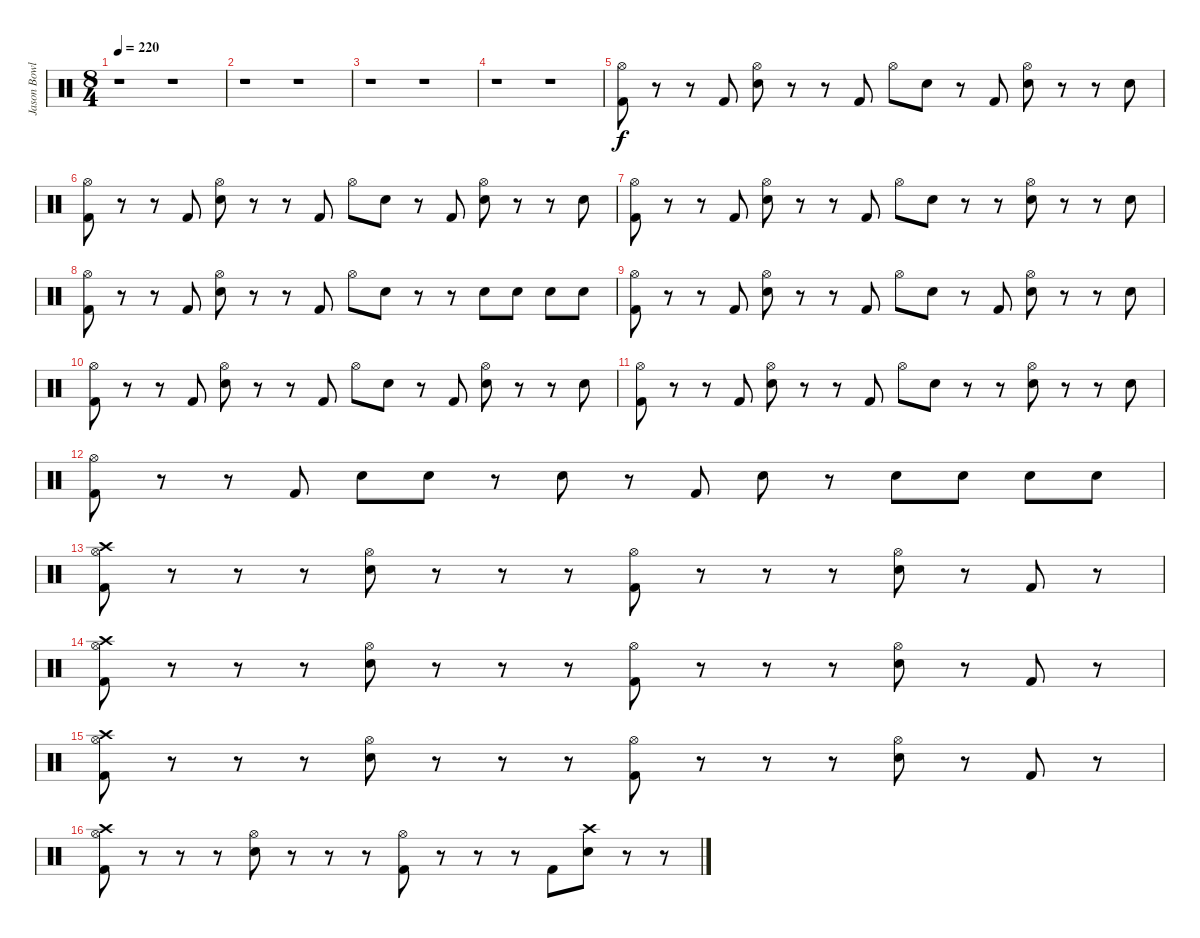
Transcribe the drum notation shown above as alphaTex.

\track ("Jason Bowld" "Jason Bowl") {instrument percussion}
\staff {score}
\articulation defaults
\ts (8 4)
\tempo 220
\clef neutral
\ks c
r.1{dy f} r.1 |
r.1 r.1 |
r.1 r.1 |
r.1 r.1 |
("Hi-Hat (open)" "Kick (hit) 2").8 r.8 r.8 "Kick (hit) 2".8 ("Hi-Hat (open)" "Snare (hit) 2").8 r.8 r.8 "Kick (hit) 2".8 "Hi-Hat (open)".8 "Snare (hit) 2".8 r.8 "Kick (hit) 2".8 ("Hi-Hat (open)" "Snare (hit) 2").8 r.8 r.8 "Snare (hit) 2".8 |
("Hi-Hat (open)" "Kick (hit) 2").8 r.8 r.8 "Kick (hit) 2".8 ("Hi-Hat (open)" "Snare (hit) 2").8 r.8 r.8 "Kick (hit) 2".8 "Hi-Hat (open)".8 "Snare (hit) 2".8 r.8 "Kick (hit) 2".8 ("Hi-Hat (open)" "Snare (hit) 2").8 r.8 r.8 "Snare (hit) 2".8 |
("Hi-Hat (open)" "Kick (hit) 2").8 r.8 r.8 "Kick (hit) 2".8 ("Hi-Hat (open)" "Snare (hit) 2").8 r.8 r.8 "Kick (hit) 2".8 "Hi-Hat (open)".8 "Snare (hit) 2".8 r.8 r.8 ("Hi-Hat (open)" "Snare (hit) 2").8 r.8 r.8 "Snare (hit) 2".8 |
("Hi-Hat (open)" "Kick (hit) 2").8 r.8 r.8 "Kick (hit) 2".8 ("Hi-Hat (open)" "Snare (hit) 2").8 r.8 r.8 "Kick (hit) 2".8 "Hi-Hat (open)".8 "Snare (hit) 2".8 r.8 r.8 "Snare (hit) 2".8 "Snare (hit) 2".8 "Snare (hit) 2".8 "Snare (hit) 2".8 |
("Hi-Hat (open)" "Kick (hit) 2").8 r.8 r.8 "Kick (hit) 2".8 ("Hi-Hat (open)" "Snare (hit) 2").8 r.8 r.8 "Kick (hit) 2".8 "Hi-Hat (open)".8 "Snare (hit) 2".8 r.8 "Kick (hit) 2".8 ("Hi-Hat (open)" "Snare (hit) 2").8 r.8 r.8 "Snare (hit) 2".8 |
("Hi-Hat (open)" "Kick (hit) 2").8 r.8 r.8 "Kick (hit) 2".8 ("Hi-Hat (open)" "Snare (hit) 2").8 r.8 r.8 "Kick (hit) 2".8 "Hi-Hat (open)".8 "Snare (hit) 2".8 r.8 "Kick (hit) 2".8 ("Hi-Hat (open)" "Snare (hit) 2").8 r.8 r.8 "Snare (hit) 2".8 |
("Hi-Hat (open)" "Kick (hit) 2").8 r.8 r.8 "Kick (hit) 2".8 ("Hi-Hat (open)" "Snare (hit) 2").8 r.8 r.8 "Kick (hit) 2".8 "Hi-Hat (open)".8 "Snare (hit) 2".8 r.8 r.8 ("Hi-Hat (open)" "Snare (hit) 2").8 r.8 r.8 "Snare (hit) 2".8 |
("Hi-Hat (open)" "Kick (hit) 2").8 r.8 r.8 "Kick (hit) 2".8 "Snare (hit) 2".8 "Snare (hit) 2".8 r.8 "Snare (hit) 2".8 r.8 "Kick (hit) 2".8 "Snare (hit) 2".8 r.8 "Snare (hit) 2".8 "Snare (hit) 2".8 "Snare (hit) 2".8 "Snare (hit) 2".8 |
("Hi-Hat (open)" "Kick (hit) 2" "Crash high (hit)").8 r.8 r.8 r.8 ("Hi-Hat (open)" "Snare (hit) 2").8 r.8 r.8 r.8 ("Hi-Hat (open)" "Kick (hit) 2").8 r.8 r.8 r.8 ("Hi-Hat (open)" "Snare (hit) 2").8 r.8 "Kick (hit) 2".8 r.8 |
("Hi-Hat (open)" "Kick (hit) 2" "Crash high (hit)").8 r.8 r.8 r.8 ("Hi-Hat (open)" "Snare (hit) 2").8 r.8 r.8 r.8 ("Hi-Hat (open)" "Kick (hit) 2").8 r.8 r.8 r.8 ("Hi-Hat (open)" "Snare (hit) 2").8 r.8 "Kick (hit) 2".8 r.8 |
("Hi-Hat (open)" "Kick (hit) 2" "Crash high (hit)").8 r.8 r.8 r.8 ("Hi-Hat (open)" "Snare (hit) 2").8 r.8 r.8 r.8 ("Hi-Hat (open)" "Kick (hit) 2").8 r.8 r.8 r.8 ("Hi-Hat (open)" "Snare (hit) 2").8 r.8 "Kick (hit) 2".8 r.8 |
("Hi-Hat (open)" "Kick (hit) 2" "Crash high (hit)").8 r.8 r.8 r.8 ("Hi-Hat (open)" "Snare (hit) 2").8 r.8 r.8 r.8 ("Hi-Hat (open)" "Kick (hit) 2").8 r.8 r.8 r.8 "Kick (hit) 2".8 ("Snare (hit) 2" "Crash high (hit)").8 r.8 r.8
